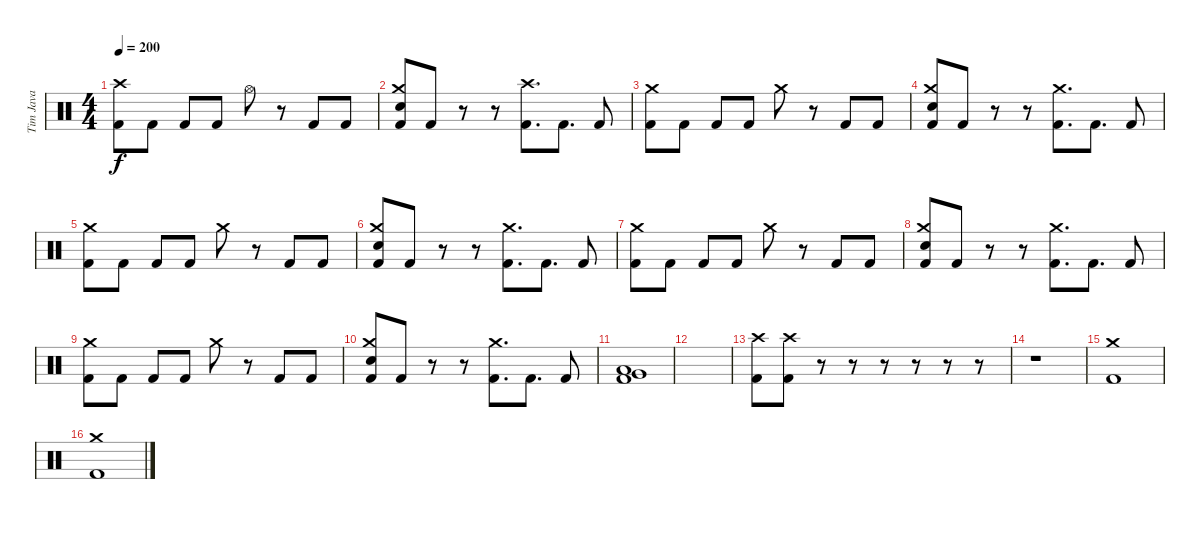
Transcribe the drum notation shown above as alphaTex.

\track ("Tim Java" "Tim Java") {instrument percussion}
\staff {score}
\articulation defaults
\ts (4 4)
\tempo 200
\clef neutral
\ks c
("Crash high (hit)" "Kick (hit) 2").8{dy f} "Kick (hit) 2".8 "Kick (hit) 2".8 "Kick (hit) 2".8 "Hi-Hat (open)".8 r.8 "Kick (hit) 2".8 "Kick (hit) 2".8 |
("Crash medium (hit)" "Electric Snare (hit)" "Kick (hit) 2").8 "Kick (hit) 2".8 r.8 r.8 ("Crash high (hit)" "Kick (hit) 2").8{d} "Kick (hit) 2".8{d} "Kick (hit) 2".8 |
("Crash medium (hit)" "Kick (hit) 2").8 "Kick (hit) 2".8 "Kick (hit) 2".8 "Kick (hit) 2".8 "Crash medium (hit)".8 r.8 "Kick (hit) 2".8 "Kick (hit) 2".8 |
("Crash medium (hit)" "Electric Snare (hit)" "Kick (hit) 2").8 "Kick (hit) 2".8 r.8 r.8 ("Crash medium (hit)" "Kick (hit) 2").8{d} "Kick (hit) 2".8{d} "Kick (hit) 2".8 |
("Crash medium (hit)" "Kick (hit) 2").8 "Kick (hit) 2".8 "Kick (hit) 2".8 "Kick (hit) 2".8 "Crash medium (hit)".8 r.8 "Kick (hit) 2".8 "Kick (hit) 2".8 |
("Crash medium (hit)" "Electric Snare (hit)" "Kick (hit) 2").8 "Kick (hit) 2".8 r.8 r.8 ("Crash medium (hit)" "Kick (hit) 2").8{d} "Kick (hit) 2".8{d} "Kick (hit) 2".8 |
("Crash medium (hit)" "Kick (hit) 2").8 "Kick (hit) 2".8 "Kick (hit) 2".8 "Kick (hit) 2".8 "Crash medium (hit)".8 r.8 "Kick (hit) 2".8 "Kick (hit) 2".8 |
("Crash medium (hit)" "Electric Snare (hit)" "Kick (hit) 2").8 "Kick (hit) 2".8 r.8 r.8 ("Crash medium (hit)" "Kick (hit) 2").8{d} "Kick (hit) 2".8{d} "Kick (hit) 2".8 |
("Crash medium (hit)" "Kick (hit) 2").8 "Kick (hit) 2".8 "Kick (hit) 2".8 "Kick (hit) 2".8 "Crash medium (hit)".8 r.8 "Kick (hit) 2".8 "Kick (hit) 2".8 |
("Crash medium (hit)" "Electric Snare (hit)" "Kick (hit) 2").8 "Kick (hit) 2".8 r.8 r.8 ("Crash medium (hit)" "Kick (hit) 2").8{d} "Kick (hit) 2".8{d} "Kick (hit) 2".8 |
("Very Low Tom (hit)" "Low Floor Tom (hit)" "Kick (hit) 2").1 |
|
("Crash high (hit)" "Kick (hit) 2").8 ("Crash high (hit)" "Kick (hit) 2").8 r.8 r.8 r.8 r.8 r.8 r.8 |
r.1 |
("Crash medium (hit)" "Kick (hit) 2").1 |
("Crash medium (hit)" "Kick (hit) 2").1
